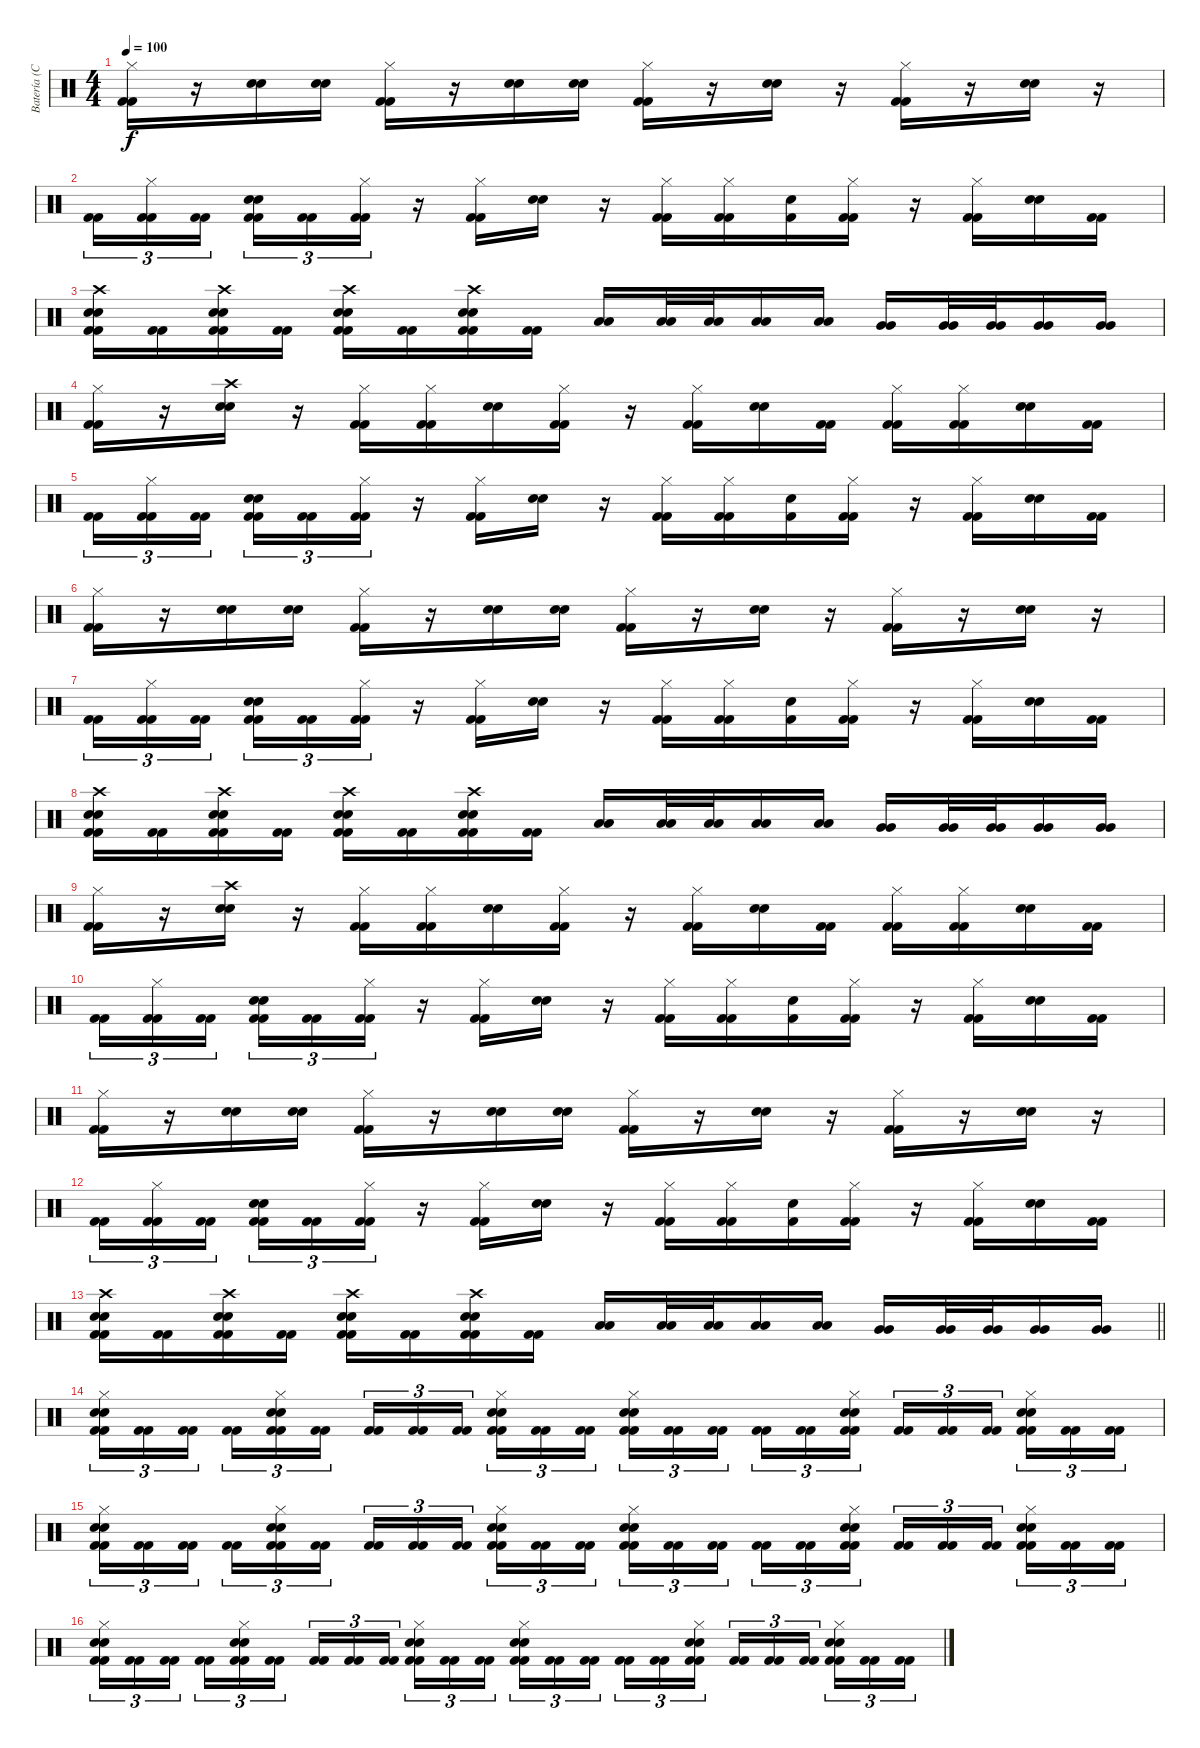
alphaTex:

\track ("Batería (Cristian)" "Batería (C") {instrument percussion}
\staff {score}
\articulation defaults
\ts (4 4)
\tempo 100
\clef neutral
\ks c
("Hi-Hat (closed)" "Kick (hit) 2" "Kick (hit) 2").16{dy f} r.16 ("Electric Snare (hit)" "Snare (hit) 2").16 ("Electric Snare (hit)" "Snare (hit) 2").16 ("Hi-Hat (closed)" "Kick (hit) 2" "Kick (hit) 2").16 r.16 ("Electric Snare (hit)" "Snare (hit) 2").16 ("Electric Snare (hit)" "Snare (hit) 2").16 ("Hi-Hat (closed)" "Kick (hit) 2" "Kick (hit) 2").16 r.16 ("Electric Snare (hit)" "Snare (hit) 2").16 r.16 ("Hi-Hat (closed)" "Kick (hit) 2" "Kick (hit) 2").16 r.16 ("Electric Snare (hit)" "Snare (hit) 2").16 r.16 |
("Kick (hit) 2" "Kick (hit) 2").16{tu (3 2)} ("Hi-Hat (closed)" "Kick (hit) 2" "Kick (hit) 2").16{tu (3 2)} ("Kick (hit) 2" "Kick (hit) 2").16{tu (3 2)} ("Electric Snare (hit)" "Snare (hit) 2" "Kick (hit) 2" "Kick (hit) 2").16{tu (3 2)} ("Kick (hit) 2" "Kick (hit) 2").16{tu (3 2)} ("Hi-Hat (closed)" "Kick (hit) 2" "Kick (hit) 2").16{tu (3 2)} r.16 ("Hi-Hat (closed)" "Kick (hit) 2" "Kick (hit) 2").16 ("Electric Snare (hit)" "Snare (hit) 2").16 r.16 ("Hi-Hat (closed)" "Kick (hit) 2" "Kick (hit) 2").16 ("Hi-Hat (closed)" "Kick (hit) 2" "Kick (hit) 2").16 ("Electric Snare (hit)" "Kick (hit) 2").16 ("Hi-Hat (closed)" "Kick (hit) 2" "Kick (hit) 2").16 r.16 ("Hi-Hat (closed)" "Kick (hit) 2" "Kick (hit) 2").16 ("Electric Snare (hit)" "Snare (hit) 2").16 ("Kick (hit) 2" "Kick (hit) 2").16 |
("Crash high (hit)" "Electric Snare (hit)" "Snare (hit) 2" "Kick (hit) 2" "Kick (hit) 2").16 ("Kick (hit) 2" "Kick (hit) 2").16 ("Crash high (hit)" "Electric Snare (hit)" "Snare (hit) 2" "Kick (hit) 2" "Kick (hit) 2").16 ("Kick (hit) 2" "Kick (hit) 2").16 ("Crash high (hit)" "Electric Snare (hit)" "Snare (hit) 2" "Kick (hit) 2" "Kick (hit) 2").16 ("Kick (hit) 2" "Kick (hit) 2").16 ("Crash high (hit)" "Electric Snare (hit)" "Snare (hit) 2" "Kick (hit) 2" "Kick (hit) 2").16 ("Kick (hit) 2" "Kick (hit) 2").16 ("Low Tom (hit)" "Low Tom (hit)").16 ("Low Tom (hit)" "Low Tom (hit)").32 ("Low Tom (hit)" "Low Tom (hit)").32 ("Low Tom (hit)" "Low Tom (hit)").16 ("Low Tom (hit)" "Low Tom (hit)").16 ("Very Low Tom (hit)" "Very Low Tom (hit)").16 ("Very Low Tom (hit)" "Very Low Tom (hit)").32 ("Very Low Tom (hit)" "Very Low Tom (hit)").32 ("Very Low Tom (hit)" "Very Low Tom (hit)").16 ("Very Low Tom (hit)" "Very Low Tom (hit)").16 |
("Hi-Hat (closed)" "Kick (hit) 2" "Kick (hit) 2").16 r.16 ("Crash high (hit)" "Electric Snare (hit)" "Snare (hit) 2").16 r.16 ("Hi-Hat (closed)" "Kick (hit) 2" "Kick (hit) 2").16 ("Hi-Hat (closed)" "Kick (hit) 2" "Kick (hit) 2").16 ("Electric Snare (hit)" "Snare (hit) 2").16 ("Hi-Hat (closed)" "Kick (hit) 2" "Kick (hit) 2").16 r.16 ("Hi-Hat (closed)" "Kick (hit) 2" "Kick (hit) 2").16 ("Electric Snare (hit)" "Snare (hit) 2").16 ("Kick (hit) 2" "Kick (hit) 2").16 ("Hi-Hat (closed)" "Kick (hit) 2" "Kick (hit) 2").16 ("Hi-Hat (closed)" "Kick (hit) 2" "Kick (hit) 2").16 ("Electric Snare (hit)" "Snare (hit) 2").16 ("Kick (hit) 2" "Kick (hit) 2").16 |
("Kick (hit) 2" "Kick (hit) 2").16{tu (3 2)} ("Hi-Hat (closed)" "Kick (hit) 2" "Kick (hit) 2").16{tu (3 2)} ("Kick (hit) 2" "Kick (hit) 2").16{tu (3 2)} ("Electric Snare (hit)" "Snare (hit) 2" "Kick (hit) 2" "Kick (hit) 2").16{tu (3 2)} ("Kick (hit) 2" "Kick (hit) 2").16{tu (3 2)} ("Hi-Hat (closed)" "Kick (hit) 2" "Kick (hit) 2").16{tu (3 2)} r.16 ("Hi-Hat (closed)" "Kick (hit) 2" "Kick (hit) 2").16 ("Electric Snare (hit)" "Snare (hit) 2").16 r.16 ("Hi-Hat (closed)" "Kick (hit) 2" "Kick (hit) 2").16 ("Hi-Hat (closed)" "Kick (hit) 2" "Kick (hit) 2").16 ("Electric Snare (hit)" "Kick (hit) 2").16 ("Hi-Hat (closed)" "Kick (hit) 2" "Kick (hit) 2").16 r.16 ("Hi-Hat (closed)" "Kick (hit) 2" "Kick (hit) 2").16 ("Electric Snare (hit)" "Snare (hit) 2").16 ("Kick (hit) 2" "Kick (hit) 2").16 |
("Hi-Hat (closed)" "Kick (hit) 2" "Kick (hit) 2").16 r.16 ("Electric Snare (hit)" "Snare (hit) 2").16 ("Electric Snare (hit)" "Snare (hit) 2").16 ("Hi-Hat (closed)" "Kick (hit) 2" "Kick (hit) 2").16 r.16 ("Electric Snare (hit)" "Snare (hit) 2").16 ("Electric Snare (hit)" "Snare (hit) 2").16 ("Hi-Hat (closed)" "Kick (hit) 2" "Kick (hit) 2").16 r.16 ("Electric Snare (hit)" "Snare (hit) 2").16 r.16 ("Hi-Hat (closed)" "Kick (hit) 2" "Kick (hit) 2").16 r.16 ("Electric Snare (hit)" "Snare (hit) 2").16 r.16 |
("Kick (hit) 2" "Kick (hit) 2").16{tu (3 2)} ("Hi-Hat (closed)" "Kick (hit) 2" "Kick (hit) 2").16{tu (3 2)} ("Kick (hit) 2" "Kick (hit) 2").16{tu (3 2)} ("Electric Snare (hit)" "Snare (hit) 2" "Kick (hit) 2" "Kick (hit) 2").16{tu (3 2)} ("Kick (hit) 2" "Kick (hit) 2").16{tu (3 2)} ("Hi-Hat (closed)" "Kick (hit) 2" "Kick (hit) 2").16{tu (3 2)} r.16 ("Hi-Hat (closed)" "Kick (hit) 2" "Kick (hit) 2").16 ("Electric Snare (hit)" "Snare (hit) 2").16 r.16 ("Hi-Hat (closed)" "Kick (hit) 2" "Kick (hit) 2").16 ("Hi-Hat (closed)" "Kick (hit) 2" "Kick (hit) 2").16 ("Electric Snare (hit)" "Kick (hit) 2").16 ("Hi-Hat (closed)" "Kick (hit) 2" "Kick (hit) 2").16 r.16 ("Hi-Hat (closed)" "Kick (hit) 2" "Kick (hit) 2").16 ("Electric Snare (hit)" "Snare (hit) 2").16 ("Kick (hit) 2" "Kick (hit) 2").16 |
("Crash high (hit)" "Electric Snare (hit)" "Snare (hit) 2" "Kick (hit) 2" "Kick (hit) 2").16 ("Kick (hit) 2" "Kick (hit) 2").16 ("Crash high (hit)" "Electric Snare (hit)" "Snare (hit) 2" "Kick (hit) 2" "Kick (hit) 2").16 ("Kick (hit) 2" "Kick (hit) 2").16 ("Crash high (hit)" "Electric Snare (hit)" "Snare (hit) 2" "Kick (hit) 2" "Kick (hit) 2").16 ("Kick (hit) 2" "Kick (hit) 2").16 ("Crash high (hit)" "Electric Snare (hit)" "Snare (hit) 2" "Kick (hit) 2" "Kick (hit) 2").16 ("Kick (hit) 2" "Kick (hit) 2").16 ("Low Tom (hit)" "Low Tom (hit)").16 ("Low Tom (hit)" "Low Tom (hit)").32 ("Low Tom (hit)" "Low Tom (hit)").32 ("Low Tom (hit)" "Low Tom (hit)").16 ("Low Tom (hit)" "Low Tom (hit)").16 ("Very Low Tom (hit)" "Very Low Tom (hit)").16 ("Very Low Tom (hit)" "Very Low Tom (hit)").32 ("Very Low Tom (hit)" "Very Low Tom (hit)").32 ("Very Low Tom (hit)" "Very Low Tom (hit)").16 ("Very Low Tom (hit)" "Very Low Tom (hit)").16 |
("Hi-Hat (closed)" "Kick (hit) 2" "Kick (hit) 2").16 r.16 ("Crash high (hit)" "Electric Snare (hit)" "Snare (hit) 2").16 r.16 ("Hi-Hat (closed)" "Kick (hit) 2" "Kick (hit) 2").16 ("Hi-Hat (closed)" "Kick (hit) 2" "Kick (hit) 2").16 ("Electric Snare (hit)" "Snare (hit) 2").16 ("Hi-Hat (closed)" "Kick (hit) 2" "Kick (hit) 2").16 r.16 ("Hi-Hat (closed)" "Kick (hit) 2" "Kick (hit) 2").16 ("Electric Snare (hit)" "Snare (hit) 2").16 ("Kick (hit) 2" "Kick (hit) 2").16 ("Hi-Hat (closed)" "Kick (hit) 2" "Kick (hit) 2").16 ("Hi-Hat (closed)" "Kick (hit) 2" "Kick (hit) 2").16 ("Electric Snare (hit)" "Snare (hit) 2").16 ("Kick (hit) 2" "Kick (hit) 2").16 |
("Kick (hit) 2" "Kick (hit) 2").16{tu (3 2)} ("Hi-Hat (closed)" "Kick (hit) 2" "Kick (hit) 2").16{tu (3 2)} ("Kick (hit) 2" "Kick (hit) 2").16{tu (3 2)} ("Electric Snare (hit)" "Snare (hit) 2" "Kick (hit) 2" "Kick (hit) 2").16{tu (3 2)} ("Kick (hit) 2" "Kick (hit) 2").16{tu (3 2)} ("Hi-Hat (closed)" "Kick (hit) 2" "Kick (hit) 2").16{tu (3 2)} r.16 ("Hi-Hat (closed)" "Kick (hit) 2" "Kick (hit) 2").16 ("Electric Snare (hit)" "Snare (hit) 2").16 r.16 ("Hi-Hat (closed)" "Kick (hit) 2" "Kick (hit) 2").16 ("Hi-Hat (closed)" "Kick (hit) 2" "Kick (hit) 2").16 ("Electric Snare (hit)" "Kick (hit) 2").16 ("Hi-Hat (closed)" "Kick (hit) 2" "Kick (hit) 2").16 r.16 ("Hi-Hat (closed)" "Kick (hit) 2" "Kick (hit) 2").16 ("Electric Snare (hit)" "Snare (hit) 2").16 ("Kick (hit) 2" "Kick (hit) 2").16 |
("Hi-Hat (closed)" "Kick (hit) 2" "Kick (hit) 2").16 r.16 ("Electric Snare (hit)" "Snare (hit) 2").16 ("Electric Snare (hit)" "Snare (hit) 2").16 ("Hi-Hat (closed)" "Kick (hit) 2" "Kick (hit) 2").16 r.16 ("Electric Snare (hit)" "Snare (hit) 2").16 ("Electric Snare (hit)" "Snare (hit) 2").16 ("Hi-Hat (closed)" "Kick (hit) 2" "Kick (hit) 2").16 r.16 ("Electric Snare (hit)" "Snare (hit) 2").16 r.16 ("Hi-Hat (closed)" "Kick (hit) 2" "Kick (hit) 2").16 r.16 ("Electric Snare (hit)" "Snare (hit) 2").16 r.16 |
("Kick (hit) 2" "Kick (hit) 2").16{tu (3 2)} ("Hi-Hat (closed)" "Kick (hit) 2" "Kick (hit) 2").16{tu (3 2)} ("Kick (hit) 2" "Kick (hit) 2").16{tu (3 2)} ("Electric Snare (hit)" "Snare (hit) 2" "Kick (hit) 2" "Kick (hit) 2").16{tu (3 2)} ("Kick (hit) 2" "Kick (hit) 2").16{tu (3 2)} ("Hi-Hat (closed)" "Kick (hit) 2" "Kick (hit) 2").16{tu (3 2)} r.16 ("Hi-Hat (closed)" "Kick (hit) 2" "Kick (hit) 2").16 ("Electric Snare (hit)" "Snare (hit) 2").16 r.16 ("Hi-Hat (closed)" "Kick (hit) 2" "Kick (hit) 2").16 ("Hi-Hat (closed)" "Kick (hit) 2" "Kick (hit) 2").16 ("Electric Snare (hit)" "Kick (hit) 2").16 ("Hi-Hat (closed)" "Kick (hit) 2" "Kick (hit) 2").16 r.16 ("Hi-Hat (closed)" "Kick (hit) 2" "Kick (hit) 2").16 ("Electric Snare (hit)" "Snare (hit) 2").16 ("Kick (hit) 2" "Kick (hit) 2").16 |
\barLineRight lightlight
("Crash high (hit)" "Electric Snare (hit)" "Snare (hit) 2" "Kick (hit) 2" "Kick (hit) 2").16 ("Kick (hit) 2" "Kick (hit) 2").16 ("Crash high (hit)" "Electric Snare (hit)" "Snare (hit) 2" "Kick (hit) 2" "Kick (hit) 2").16 ("Kick (hit) 2" "Kick (hit) 2").16 ("Crash high (hit)" "Electric Snare (hit)" "Snare (hit) 2" "Kick (hit) 2" "Kick (hit) 2").16 ("Kick (hit) 2" "Kick (hit) 2").16 ("Crash high (hit)" "Electric Snare (hit)" "Snare (hit) 2" "Kick (hit) 2" "Kick (hit) 2").16 ("Kick (hit) 2" "Kick (hit) 2").16 ("Low Tom (hit)" "Low Tom (hit)").16 ("Low Tom (hit)" "Low Tom (hit)").32 ("Low Tom (hit)" "Low Tom (hit)").32 ("Low Tom (hit)" "Low Tom (hit)").16 ("Low Tom (hit)" "Low Tom (hit)").16 ("Very Low Tom (hit)" "Very Low Tom (hit)").16 ("Very Low Tom (hit)" "Very Low Tom (hit)").32 ("Very Low Tom (hit)" "Very Low Tom (hit)").32 ("Very Low Tom (hit)" "Very Low Tom (hit)").16 ("Very Low Tom (hit)" "Very Low Tom (hit)").16 |
("Hi-Hat (closed)" "Electric Snare (hit)" "Snare (hit) 2" "Kick (hit) 2" "Kick (hit) 2").16{tu (3 2)} ("Kick (hit) 2" "Kick (hit) 2").16{tu (3 2)} ("Kick (hit) 2" "Kick (hit) 2").16{tu (3 2)} ("Kick (hit) 2" "Kick (hit) 2").16{tu (3 2)} ("Hi-Hat (closed)" "Electric Snare (hit)" "Snare (hit) 2" "Kick (hit) 2" "Kick (hit) 2").16{tu (3 2)} ("Kick (hit) 2" "Kick (hit) 2").16{tu (3 2)} ("Kick (hit) 2" "Kick (hit) 2").16{tu (3 2)} ("Kick (hit) 2" "Kick (hit) 2").16{tu (3 2)} ("Kick (hit) 2" "Kick (hit) 2").16{tu (3 2)} ("Hi-Hat (closed)" "Electric Snare (hit)" "Snare (hit) 2" "Kick (hit) 2" "Kick (hit) 2").16{tu (3 2)} ("Kick (hit) 2" "Kick (hit) 2").16{tu (3 2)} ("Kick (hit) 2" "Kick (hit) 2").16{tu (3 2)} ("Hi-Hat (closed)" "Electric Snare (hit)" "Snare (hit) 2" "Kick (hit) 2" "Kick (hit) 2").16{tu (3 2)} ("Kick (hit) 2" "Kick (hit) 2").16{tu (3 2)} ("Kick (hit) 2" "Kick (hit) 2").16{tu (3 2)} ("Kick (hit) 2" "Kick (hit) 2").16{tu (3 2)} ("Kick (hit) 2" "Kick (hit) 2").16{tu (3 2)} ("Hi-Hat (closed)" "Electric Snare (hit)" "Snare (hit) 2" "Kick (hit) 2" "Kick (hit) 2").16{tu (3 2)} ("Kick (hit) 2" "Kick (hit) 2").16{tu (3 2)} ("Kick (hit) 2" "Kick (hit) 2").16{tu (3 2)} ("Kick (hit) 2" "Kick (hit) 2").16{tu (3 2)} ("Hi-Hat (closed)" "Electric Snare (hit)" "Snare (hit) 2" "Kick (hit) 2" "Kick (hit) 2").16{tu (3 2)} ("Kick (hit) 2" "Kick (hit) 2").16{tu (3 2)} ("Kick (hit) 2" "Kick (hit) 2").16{tu (3 2)} |
("Hi-Hat (closed)" "Electric Snare (hit)" "Snare (hit) 2" "Kick (hit) 2" "Kick (hit) 2").16{tu (3 2)} ("Kick (hit) 2" "Kick (hit) 2").16{tu (3 2)} ("Kick (hit) 2" "Kick (hit) 2").16{tu (3 2)} ("Kick (hit) 2" "Kick (hit) 2").16{tu (3 2)} ("Hi-Hat (closed)" "Electric Snare (hit)" "Snare (hit) 2" "Kick (hit) 2" "Kick (hit) 2").16{tu (3 2)} ("Kick (hit) 2" "Kick (hit) 2").16{tu (3 2)} ("Kick (hit) 2" "Kick (hit) 2").16{tu (3 2)} ("Kick (hit) 2" "Kick (hit) 2").16{tu (3 2)} ("Kick (hit) 2" "Kick (hit) 2").16{tu (3 2)} ("Hi-Hat (closed)" "Electric Snare (hit)" "Snare (hit) 2" "Kick (hit) 2" "Kick (hit) 2").16{tu (3 2)} ("Kick (hit) 2" "Kick (hit) 2").16{tu (3 2)} ("Kick (hit) 2" "Kick (hit) 2").16{tu (3 2)} ("Hi-Hat (closed)" "Electric Snare (hit)" "Snare (hit) 2" "Kick (hit) 2" "Kick (hit) 2").16{tu (3 2)} ("Kick (hit) 2" "Kick (hit) 2").16{tu (3 2)} ("Kick (hit) 2" "Kick (hit) 2").16{tu (3 2)} ("Kick (hit) 2" "Kick (hit) 2").16{tu (3 2)} ("Kick (hit) 2" "Kick (hit) 2").16{tu (3 2)} ("Hi-Hat (closed)" "Electric Snare (hit)" "Snare (hit) 2" "Kick (hit) 2" "Kick (hit) 2").16{tu (3 2)} ("Kick (hit) 2" "Kick (hit) 2").16{tu (3 2)} ("Kick (hit) 2" "Kick (hit) 2").16{tu (3 2)} ("Kick (hit) 2" "Kick (hit) 2").16{tu (3 2)} ("Hi-Hat (closed)" "Electric Snare (hit)" "Snare (hit) 2" "Kick (hit) 2" "Kick (hit) 2").16{tu (3 2)} ("Kick (hit) 2" "Kick (hit) 2").16{tu (3 2)} ("Kick (hit) 2" "Kick (hit) 2").16{tu (3 2)} |
("Hi-Hat (closed)" "Electric Snare (hit)" "Snare (hit) 2" "Kick (hit) 2" "Kick (hit) 2").16{tu (3 2)} ("Kick (hit) 2" "Kick (hit) 2").16{tu (3 2)} ("Kick (hit) 2" "Kick (hit) 2").16{tu (3 2)} ("Kick (hit) 2" "Kick (hit) 2").16{tu (3 2)} ("Hi-Hat (closed)" "Electric Snare (hit)" "Snare (hit) 2" "Kick (hit) 2" "Kick (hit) 2").16{tu (3 2)} ("Kick (hit) 2" "Kick (hit) 2").16{tu (3 2)} ("Kick (hit) 2" "Kick (hit) 2").16{tu (3 2)} ("Kick (hit) 2" "Kick (hit) 2").16{tu (3 2)} ("Kick (hit) 2" "Kick (hit) 2").16{tu (3 2)} ("Hi-Hat (closed)" "Electric Snare (hit)" "Snare (hit) 2" "Kick (hit) 2" "Kick (hit) 2").16{tu (3 2)} ("Kick (hit) 2" "Kick (hit) 2").16{tu (3 2)} ("Kick (hit) 2" "Kick (hit) 2").16{tu (3 2)} ("Hi-Hat (closed)" "Electric Snare (hit)" "Snare (hit) 2" "Kick (hit) 2" "Kick (hit) 2").16{tu (3 2)} ("Kick (hit) 2" "Kick (hit) 2").16{tu (3 2)} ("Kick (hit) 2" "Kick (hit) 2").16{tu (3 2)} ("Kick (hit) 2" "Kick (hit) 2").16{tu (3 2)} ("Kick (hit) 2" "Kick (hit) 2").16{tu (3 2)} ("Hi-Hat (closed)" "Electric Snare (hit)" "Snare (hit) 2" "Kick (hit) 2" "Kick (hit) 2").16{tu (3 2)} ("Kick (hit) 2" "Kick (hit) 2").16{tu (3 2)} ("Kick (hit) 2" "Kick (hit) 2").16{tu (3 2)} ("Kick (hit) 2" "Kick (hit) 2").16{tu (3 2)} ("Hi-Hat (closed)" "Electric Snare (hit)" "Snare (hit) 2" "Kick (hit) 2" "Kick (hit) 2").16{tu (3 2)} ("Kick (hit) 2" "Kick (hit) 2").16{tu (3 2)} ("Kick (hit) 2" "Kick (hit) 2").16{tu (3 2)}
